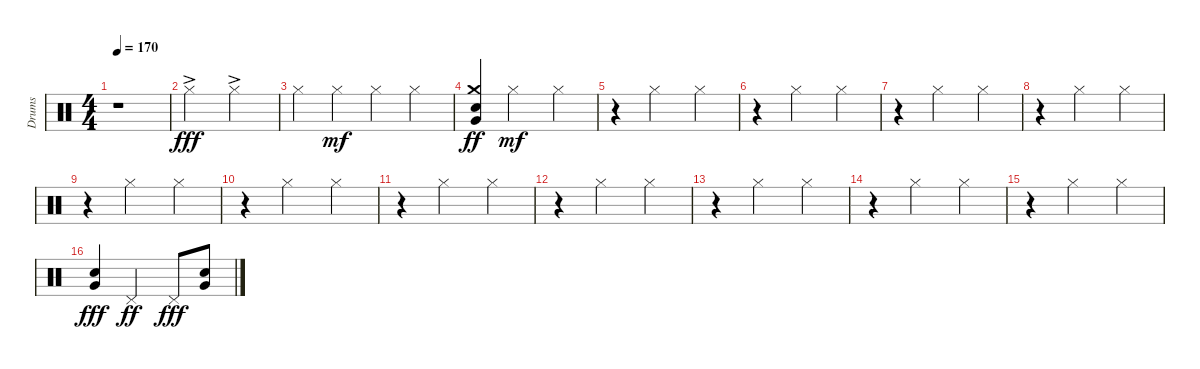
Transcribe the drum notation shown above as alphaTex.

\track ("Drums" "Drums") {instrument percussion}
\staff {score}
\articulation defaults
\ts (4 4)
\tempo 170
\clef neutral
\ks c
r.1{dy fff} |
"Hi-Hat (closed)"{ac}.2 "Hi-Hat (closed)"{ac}.2 |
"Hi-Hat (closed)".4 "Hi-Hat (closed)".4{dy mf} "Hi-Hat (closed)".4 "Hi-Hat (closed)".4 |
("Very Low Tom (hit)" "Crash medium (hit)" "Snare (hit) 2").4{dy ff} "Hi-Hat (closed)".2{dy mf} "Hi-Hat (closed)".4 |
r.4 "Hi-Hat (closed)".2 "Hi-Hat (closed)".4 |
r.4 "Hi-Hat (closed)".2 "Hi-Hat (closed)".4 |
r.4 "Hi-Hat (closed)".2 "Hi-Hat (closed)".4 |
r.4 "Hi-Hat (closed)".2 "Hi-Hat (closed)".4 |
r.4 "Hi-Hat (closed)".2 "Hi-Hat (closed)".4 |
r.4 "Hi-Hat (closed)".2 "Hi-Hat (closed)".4 |
r.4 "Hi-Hat (closed)".2 "Hi-Hat (closed)".4 |
r.4 "Hi-Hat (closed)".2 "Hi-Hat (closed)".4 |
r.4 "Hi-Hat (closed)".2 "Hi-Hat (closed)".4 |
r.4 "Hi-Hat (closed)".2 "Hi-Hat (closed)".4 |
r.4 "Hi-Hat (closed)".2 "Hi-Hat (closed)".4 |
("Snare (hit) 2" "Very Low Tom (hit)").4{dy fff} "Pedal Hi-Hat (hit)".2{dy ff} "Pedal Hi-Hat (hit)".8{dy fff} ("Snare (hit) 2" "Very Low Tom (hit)").8
